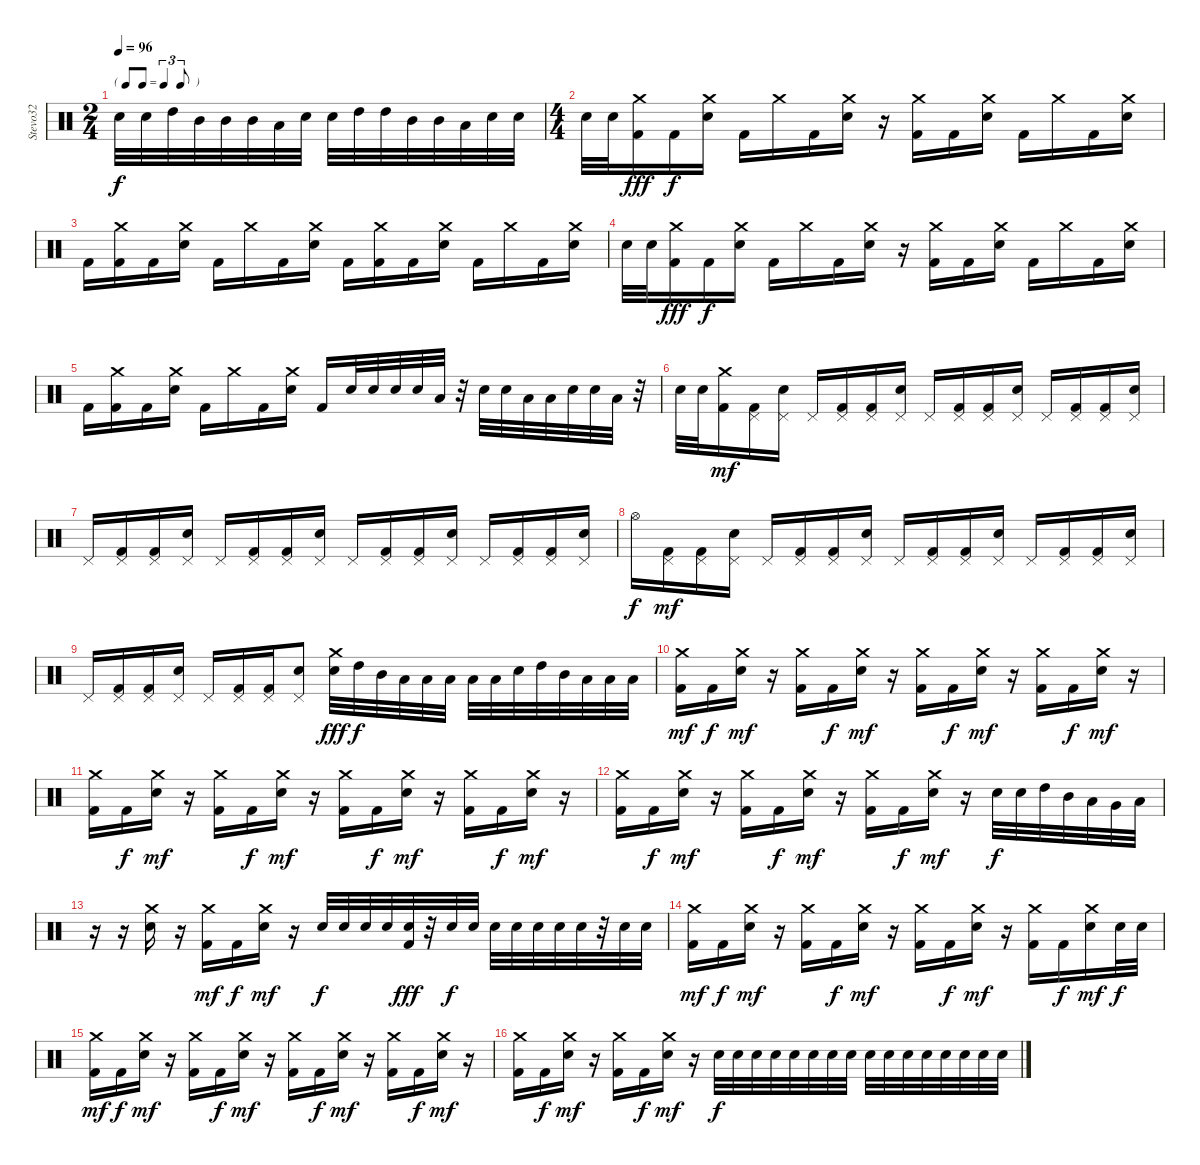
\track ("Stevo32" "Stevo32") {instrument percussion}
\staff {score}
\articulation defaults
\ts (2 4)
\tf triplet8th
\tempo 96
\clef neutral
\ks c "Electric Snare (hit)".32{dy f} "Electric Snare (hit)".32 "High Tom (hit)".32 "Mid Tom (hit)".32 "Mid Tom (hit)".32 "Mid Tom (hit)".32 "Low Tom (hit)".32 "Electric Snare (hit)".32 "Electric Snare (hit)".32 "High Tom (hit)".32 "High Tom (hit)".32 "Mid Tom (hit)".32 "Mid Tom (hit)".32 "Low Tom (hit)".32 "Electric Snare (hit)".32 "Electric Snare (hit)".32
|
\ts (4 4)
"Electric Snare (hit)".32 "Electric Snare (hit)".32 ("Crash medium (hit)" "Kick (hit) 2").16{dy fff} "Kick (hit) 2".16{dy f} ("Crash medium (hit)" "Electric Snare (hit)").16 "Kick (hit) 2".16 "Crash medium (hit)".16 "Kick (hit) 2".16 ("Crash medium (hit)" "Electric Snare (hit)").16 r.16 ("Crash medium (hit)" "Kick (hit) 2").16 "Kick (hit) 2".16 ("Crash medium (hit)" "Electric Snare (hit)").16 "Kick (hit) 2".16 "Crash medium (hit)".16 "Kick (hit) 2".16 ("Crash medium (hit)" "Electric Snare (hit)").16 |
"Kick (hit) 2".16 ("Crash medium (hit)" "Kick (hit) 2").16 "Kick (hit) 2".16 ("Crash medium (hit)" "Electric Snare (hit)").16 "Kick (hit) 2".16 "Crash medium (hit)".16 "Kick (hit) 2".16 ("Crash medium (hit)" "Electric Snare (hit)").16 "Kick (hit) 2".16 ("Crash medium (hit)" "Kick (hit) 2").16 "Kick (hit) 2".16 ("Crash medium (hit)" "Electric Snare (hit)").16 "Kick (hit) 2".16 "Crash medium (hit)".16 "Kick (hit) 2".16 ("Crash medium (hit)" "Electric Snare (hit)").16 |
"Electric Snare (hit)".32 "Electric Snare (hit)".32 ("Crash medium (hit)" "Kick (hit) 2").16{dy fff} "Kick (hit) 2".16{dy f} ("Crash medium (hit)" "Electric Snare (hit)").16 "Kick (hit) 2".16 "Crash medium (hit)".16 "Kick (hit) 2".16 ("Crash medium (hit)" "Electric Snare (hit)").16 r.16 ("Crash medium (hit)" "Kick (hit) 2").16 "Kick (hit) 2".16 ("Crash medium (hit)" "Electric Snare (hit)").16 "Kick (hit) 2".16 "Crash medium (hit)".16 "Kick (hit) 2".16 ("Crash medium (hit)" "Electric Snare (hit)").16 |
"Kick (hit) 2".16 ("Crash medium (hit)" "Kick (hit) 2").16 "Kick (hit) 2".16 ("Crash medium (hit)" "Electric Snare (hit)").16 "Kick (hit) 2".16 "Crash medium (hit)".16 "Kick (hit) 2".16 ("Crash medium (hit)" "Electric Snare (hit)").16 "Kick (hit) 2".16 "Electric Snare (hit)".32 "Electric Snare (hit)".32 "Electric Snare (hit)".32 "Electric Snare (hit)".32 "Low Tom (hit)".32 r.32 "Electric Snare (hit)".32 "Electric Snare (hit)".32 "Low Tom (hit)".32 "Low Tom (hit)".32 "Electric Snare (hit)".32 "Electric Snare (hit)".32 "Low Tom (hit)".32 r.32 |
"Electric Snare (hit)".32 "Electric Snare (hit)".32 ("Crash medium (hit)" "Kick (hit) 2").16{dy mf} ("Pedal Hi-Hat (hit)" "Kick (hit) 2").16 ("Pedal Hi-Hat (hit)" "Electric Snare (hit)").16 "Pedal Hi-Hat (hit)".16 ("Pedal Hi-Hat (hit)" "Kick (hit) 2").16 ("Pedal Hi-Hat (hit)" "Kick (hit) 2").16 ("Pedal Hi-Hat (hit)" "Electric Snare (hit)").16 "Pedal Hi-Hat (hit)".16 ("Pedal Hi-Hat (hit)" "Kick (hit) 2").16 ("Pedal Hi-Hat (hit)" "Kick (hit) 2").16 ("Pedal Hi-Hat (hit)" "Electric Snare (hit)").16 "Pedal Hi-Hat (hit)".16 ("Pedal Hi-Hat (hit)" "Kick (hit) 2").16 ("Pedal Hi-Hat (hit)" "Kick (hit) 2").16 ("Pedal Hi-Hat (hit)" "Electric Snare (hit)").16 |
"Pedal Hi-Hat (hit)".16 ("Pedal Hi-Hat (hit)" "Kick (hit) 2").16 ("Pedal Hi-Hat (hit)" "Kick (hit) 2").16 ("Pedal Hi-Hat (hit)" "Electric Snare (hit)").16 "Pedal Hi-Hat (hit)".16 ("Pedal Hi-Hat (hit)" "Kick (hit) 2").16 ("Pedal Hi-Hat (hit)" "Kick (hit) 2").16 ("Pedal Hi-Hat (hit)" "Electric Snare (hit)").16 "Pedal Hi-Hat (hit)".16 ("Pedal Hi-Hat (hit)" "Kick (hit) 2").16 ("Pedal Hi-Hat (hit)" "Kick (hit) 2").16 ("Pedal Hi-Hat (hit)" "Electric Snare (hit)").16 "Pedal Hi-Hat (hit)".16 ("Pedal Hi-Hat (hit)" "Kick (hit) 2").16 ("Pedal Hi-Hat (hit)" "Kick (hit) 2").16 ("Pedal Hi-Hat (hit)" "Electric Snare (hit)").16 |
"Hi-Hat (open)".16{dy f} ("Pedal Hi-Hat (hit)" "Kick (hit) 2").16{dy mf} ("Pedal Hi-Hat (hit)" "Kick (hit) 2").16 ("Pedal Hi-Hat (hit)" "Electric Snare (hit)").16 "Pedal Hi-Hat (hit)".16 ("Pedal Hi-Hat (hit)" "Kick (hit) 2").16 ("Pedal Hi-Hat (hit)" "Kick (hit) 2").16 ("Pedal Hi-Hat (hit)" "Electric Snare (hit)").16 "Pedal Hi-Hat (hit)".16 ("Pedal Hi-Hat (hit)" "Kick (hit) 2").16 ("Pedal Hi-Hat (hit)" "Kick (hit) 2").16 ("Pedal Hi-Hat (hit)" "Electric Snare (hit)").16 "Pedal Hi-Hat (hit)".16 ("Pedal Hi-Hat (hit)" "Kick (hit) 2").16 ("Pedal Hi-Hat (hit)" "Kick (hit) 2").16 ("Pedal Hi-Hat (hit)" "Electric Snare (hit)").16 |
"Pedal Hi-Hat (hit)".16 ("Pedal Hi-Hat (hit)" "Kick (hit) 2").16 ("Pedal Hi-Hat (hit)" "Kick (hit) 2").16 ("Pedal Hi-Hat (hit)" "Electric Snare (hit)").16 "Pedal Hi-Hat (hit)".16 ("Pedal Hi-Hat (hit)" "Kick (hit) 2").16 ("Pedal Hi-Hat (hit)" "Kick (hit) 2").16 ("Pedal Hi-Hat (hit)" "Electric Snare (hit)").8 ("Crash medium (hit)" "Electric Snare (hit)").32{dy fff} "High Tom (hit)".32{dy f} "Mid Tom (hit)".32 "Low Tom (hit)".32 "Low Tom (hit)".32 "Low Tom (hit)".32 "Low Tom (hit)".32 "Low Tom (hit)".32 "Electric Snare (hit)".32 "High Tom (hit)".32 "Mid Tom (hit)".32 "Low Tom (hit)".32 "Low Tom (hit)".32 "Low Tom (hit)".32 |
("Crash medium (hit)" "Kick (hit) 2").16{dy mf} "Kick (hit) 2".16{dy f} ("Crash medium (hit)" "Electric Snare (hit)").16{dy mf} r.16 ("Crash medium (hit)" "Kick (hit) 2").16 "Kick (hit) 2".16{dy f} ("Crash medium (hit)" "Electric Snare (hit)").16{dy mf} r.16 ("Crash medium (hit)" "Kick (hit) 2").16 "Kick (hit) 2".16{dy f} ("Crash medium (hit)" "Electric Snare (hit)").16{dy mf} r.16 ("Crash medium (hit)" "Kick (hit) 2").16 "Kick (hit) 2".16{dy f} ("Crash medium (hit)" "Electric Snare (hit)").16{dy mf} r.16 |
("Crash medium (hit)" "Kick (hit) 2").16 "Kick (hit) 2".16{dy f} ("Crash medium (hit)" "Electric Snare (hit)").16{dy mf} r.16 ("Crash medium (hit)" "Kick (hit) 2").16 "Kick (hit) 2".16{dy f} ("Crash medium (hit)" "Electric Snare (hit)").16{dy mf} r.16 ("Crash medium (hit)" "Kick (hit) 2").16 "Kick (hit) 2".16{dy f} ("Crash medium (hit)" "Electric Snare (hit)").16{dy mf} r.16 ("Crash medium (hit)" "Kick (hit) 2").16 "Kick (hit) 2".16{dy f} ("Crash medium (hit)" "Electric Snare (hit)").16{dy mf} r.16 |
("Crash medium (hit)" "Kick (hit) 2").16 "Kick (hit) 2".16{dy f} ("Crash medium (hit)" "Electric Snare (hit)").16{dy mf} r.16 ("Crash medium (hit)" "Kick (hit) 2").16 "Kick (hit) 2".16{dy f} ("Crash medium (hit)" "Electric Snare (hit)").16{dy mf} r.16 ("Crash medium (hit)" "Kick (hit) 2").16 "Kick (hit) 2".16{dy f} ("Crash medium (hit)" "Electric Snare (hit)").16{dy mf} r.16 "Electric Snare (hit)".32{dy f} "Electric Snare (hit)".32 "High Tom (hit)".32 "Mid Tom (hit)".32 "Low Tom (hit)".32 "Very Low Tom (hit)".32 "Low Floor Tom (hit)".32 |
r.16 r.16 ("Electric Snare (hit)" "Crash medium (hit)").16 r.16 ("Crash medium (hit)" "Kick (hit) 2").16{dy mf} "Kick (hit) 2".16{dy f} ("Crash medium (hit)" "Electric Snare (hit)").16{dy mf} r.16 "Electric Snare (hit)".32{dy f} "Electric Snare (hit)".32 "Electric Snare (hit)".32 "Electric Snare (hit)".32 ("Kick (hit) 2" "Electric Snare (hit)").32{dy fff} r.32 "Electric Snare (hit)".32{dy f} "Electric Snare (hit)".32 "Electric Snare (hit)".32 "Electric Snare (hit)".32 "Electric Snare (hit)".32 "Electric Snare (hit)".32 "Electric Snare (hit)".32 r.32 "Electric Snare (hit)".32 "Electric Snare (hit)".32 |
("Crash medium (hit)" "Kick (hit) 2").16{dy mf} "Kick (hit) 2".16{dy f} ("Crash medium (hit)" "Electric Snare (hit)").16{dy mf} r.16 ("Crash medium (hit)" "Kick (hit) 2").16 "Kick (hit) 2".16{dy f} ("Crash medium (hit)" "Electric Snare (hit)").16{dy mf} r.16 ("Crash medium (hit)" "Kick (hit) 2").16 "Kick (hit) 2".16{dy f} ("Crash medium (hit)" "Electric Snare (hit)").16{dy mf} r.16 ("Crash medium (hit)" "Kick (hit) 2").16 "Kick (hit) 2".16{dy f} ("Crash medium (hit)" "Electric Snare (hit)").16{dy mf} "Electric Snare (hit)".32{dy f} "Electric Snare (hit)".32 |
("Crash medium (hit)" "Kick (hit) 2").16{dy mf} "Kick (hit) 2".16{dy f} ("Crash medium (hit)" "Electric Snare (hit)").16{dy mf} r.16 ("Crash medium (hit)" "Kick (hit) 2").16 "Kick (hit) 2".16{dy f} ("Crash medium (hit)" "Electric Snare (hit)").16{dy mf} r.16 ("Crash medium (hit)" "Kick (hit) 2").16 "Kick (hit) 2".16{dy f} ("Crash medium (hit)" "Electric Snare (hit)").16{dy mf} r.16 ("Crash medium (hit)" "Kick (hit) 2").16 "Kick (hit) 2".16{dy f} ("Crash medium (hit)" "Electric Snare (hit)").16{dy mf} r.16 |
("Crash medium (hit)" "Kick (hit) 2").16 "Kick (hit) 2".16{dy f} ("Crash medium (hit)" "Electric Snare (hit)").16{dy mf} r.16 ("Crash medium (hit)" "Kick (hit) 2").16 "Kick (hit) 2".16{dy f} ("Crash medium (hit)" "Electric Snare (hit)").16{dy mf} r.16 "Electric Snare (hit)".32{dy f} "Electric Snare (hit)".32 "Electric Snare (hit)".32 "Electric Snare (hit)".32 "Electric Snare (hit)".32 "Electric Snare (hit)".32 "Electric Snare (hit)".32 "Electric Snare (hit)".32 "Electric Snare (hit)".32 "Electric Snare (hit)".32 "Electric Snare (hit)".32 "Electric Snare (hit)".32 "Electric Snare (hit)".32 "Electric Snare (hit)".32 "Electric Snare (hit)".32 "Electric Snare (hit)".32
